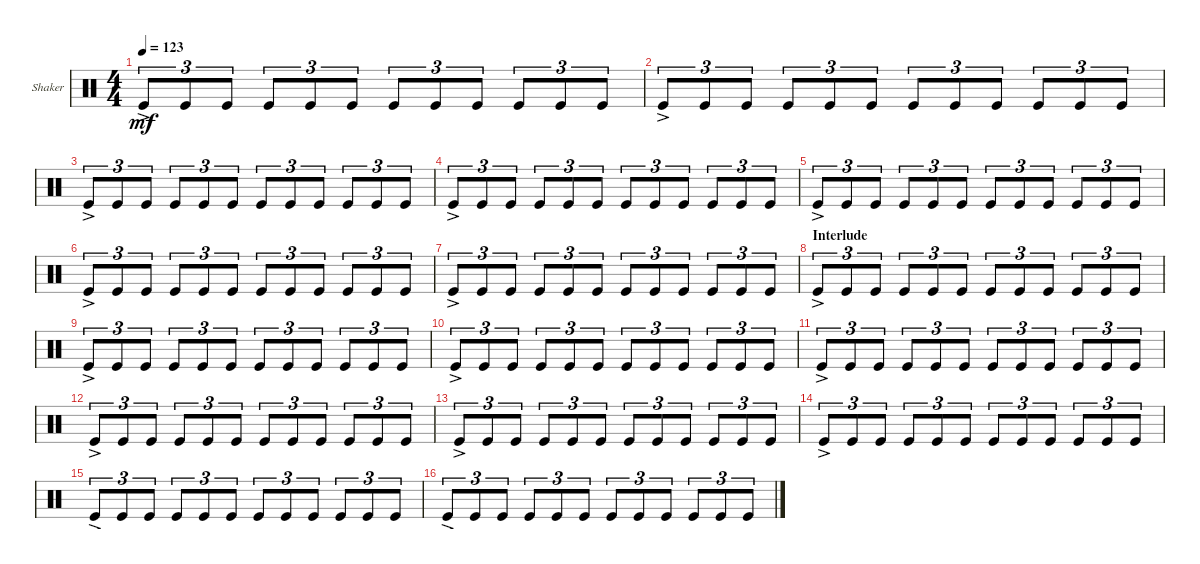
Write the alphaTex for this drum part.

\defaultSystemsLayout 4
\bracketExtendMode groupsimilarinstruments
\firstSystemTrackNameOrientation horizontal
\otherSystemsTrackNameOrientation horizontal
\track ("Shaker" "Shaker") {multiBarRest instrument percussion}
\staff {score}
\articulation defaults
\ts (4 4)
\tempo 123
\clef neutral
\ks c "Kick (hit)"{ac}.8{tu (3 2) dy mf} "Kick (hit)".8{tu (3 2)} "Kick (hit)".8{tu (3 2)} "Kick (hit)".8{tu (3 2)} "Kick (hit)".8{tu (3 2)} "Kick (hit)".8{tu (3 2)} "Kick (hit)".8{tu (3 2)} "Kick (hit)".8{tu (3 2)} "Kick (hit)".8{tu (3 2)} "Kick (hit)".8{tu (3 2)} "Kick (hit)".8{tu (3 2)} "Kick (hit)".8{tu (3 2)}
|
"Kick (hit)"{ac}.8{tu (3 2)} "Kick (hit)".8{tu (3 2)} "Kick (hit)".8{tu (3 2)} "Kick (hit)".8{tu (3 2)} "Kick (hit)".8{tu (3 2)} "Kick (hit)".8{tu (3 2)} "Kick (hit)".8{tu (3 2)} "Kick (hit)".8{tu (3 2)} "Kick (hit)".8{tu (3 2)} "Kick (hit)".8{tu (3 2)} "Kick (hit)".8{tu (3 2)} "Kick (hit)".8{tu (3 2)} |
"Kick (hit)"{ac}.8{tu (3 2)} "Kick (hit)".8{tu (3 2)} "Kick (hit)".8{tu (3 2)} "Kick (hit)".8{tu (3 2)} "Kick (hit)".8{tu (3 2)} "Kick (hit)".8{tu (3 2)} "Kick (hit)".8{tu (3 2)} "Kick (hit)".8{tu (3 2)} "Kick (hit)".8{tu (3 2)} "Kick (hit)".8{tu (3 2)} "Kick (hit)".8{tu (3 2)} "Kick (hit)".8{tu (3 2)} |
"Kick (hit)"{ac}.8{tu (3 2)} "Kick (hit)".8{tu (3 2)} "Kick (hit)".8{tu (3 2)} "Kick (hit)".8{tu (3 2)} "Kick (hit)".8{tu (3 2)} "Kick (hit)".8{tu (3 2)} "Kick (hit)".8{tu (3 2)} "Kick (hit)".8{tu (3 2)} "Kick (hit)".8{tu (3 2)} "Kick (hit)".8{tu (3 2)} "Kick (hit)".8{tu (3 2)} "Kick (hit)".8{tu (3 2)} |
"Kick (hit)"{ac}.8{tu (3 2)} "Kick (hit)".8{tu (3 2)} "Kick (hit)".8{tu (3 2)} "Kick (hit)".8{tu (3 2)} "Kick (hit)".8{tu (3 2)} "Kick (hit)".8{tu (3 2)} "Kick (hit)".8{tu (3 2)} "Kick (hit)".8{tu (3 2)} "Kick (hit)".8{tu (3 2)} "Kick (hit)".8{tu (3 2)} "Kick (hit)".8{tu (3 2)} "Kick (hit)".8{tu (3 2)} |
"Kick (hit)"{ac}.8{tu (3 2)} "Kick (hit)".8{tu (3 2)} "Kick (hit)".8{tu (3 2)} "Kick (hit)".8{tu (3 2)} "Kick (hit)".8{tu (3 2)} "Kick (hit)".8{tu (3 2)} "Kick (hit)".8{tu (3 2)} "Kick (hit)".8{tu (3 2)} "Kick (hit)".8{tu (3 2)} "Kick (hit)".8{tu (3 2)} "Kick (hit)".8{tu (3 2)} "Kick (hit)".8{tu (3 2)} |
"Kick (hit)"{ac}.8{tu (3 2)} "Kick (hit)".8{tu (3 2)} "Kick (hit)".8{tu (3 2)} "Kick (hit)".8{tu (3 2)} "Kick (hit)".8{tu (3 2)} "Kick (hit)".8{tu (3 2)} "Kick (hit)".8{tu (3 2)} "Kick (hit)".8{tu (3 2)} "Kick (hit)".8{tu (3 2)} "Kick (hit)".8{tu (3 2)} "Kick (hit)".8{tu (3 2)} "Kick (hit)".8{tu (3 2)} |
\section ("" "Interlude")
"Kick (hit)"{ac}.8{tu (3 2)} "Kick (hit)".8{tu (3 2)} "Kick (hit)".8{tu (3 2)} "Kick (hit)".8{tu (3 2)} "Kick (hit)".8{tu (3 2)} "Kick (hit)".8{tu (3 2)} "Kick (hit)".8{tu (3 2)} "Kick (hit)".8{tu (3 2)} "Kick (hit)".8{tu (3 2)} "Kick (hit)".8{tu (3 2)} "Kick (hit)".8{tu (3 2)} "Kick (hit)".8{tu (3 2)} |
"Kick (hit)"{ac}.8{tu (3 2)} "Kick (hit)".8{tu (3 2)} "Kick (hit)".8{tu (3 2)} "Kick (hit)".8{tu (3 2)} "Kick (hit)".8{tu (3 2)} "Kick (hit)".8{tu (3 2)} "Kick (hit)".8{tu (3 2)} "Kick (hit)".8{tu (3 2)} "Kick (hit)".8{tu (3 2)} "Kick (hit)".8{tu (3 2)} "Kick (hit)".8{tu (3 2)} "Kick (hit)".8{tu (3 2)} |
"Kick (hit)"{ac}.8{tu (3 2)} "Kick (hit)".8{tu (3 2)} "Kick (hit)".8{tu (3 2)} "Kick (hit)".8{tu (3 2)} "Kick (hit)".8{tu (3 2)} "Kick (hit)".8{tu (3 2)} "Kick (hit)".8{tu (3 2)} "Kick (hit)".8{tu (3 2)} "Kick (hit)".8{tu (3 2)} "Kick (hit)".8{tu (3 2)} "Kick (hit)".8{tu (3 2)} "Kick (hit)".8{tu (3 2)} |
"Kick (hit)"{ac}.8{tu (3 2)} "Kick (hit)".8{tu (3 2)} "Kick (hit)".8{tu (3 2)} "Kick (hit)".8{tu (3 2)} "Kick (hit)".8{tu (3 2)} "Kick (hit)".8{tu (3 2)} "Kick (hit)".8{tu (3 2)} "Kick (hit)".8{tu (3 2)} "Kick (hit)".8{tu (3 2)} "Kick (hit)".8{tu (3 2)} "Kick (hit)".8{tu (3 2)} "Kick (hit)".8{tu (3 2)} |
"Kick (hit)"{ac}.8{tu (3 2)} "Kick (hit)".8{tu (3 2)} "Kick (hit)".8{tu (3 2)} "Kick (hit)".8{tu (3 2)} "Kick (hit)".8{tu (3 2)} "Kick (hit)".8{tu (3 2)} "Kick (hit)".8{tu (3 2)} "Kick (hit)".8{tu (3 2)} "Kick (hit)".8{tu (3 2)} "Kick (hit)".8{tu (3 2)} "Kick (hit)".8{tu (3 2)} "Kick (hit)".8{tu (3 2)} |
"Kick (hit)"{ac}.8{tu (3 2)} "Kick (hit)".8{tu (3 2)} "Kick (hit)".8{tu (3 2)} "Kick (hit)".8{tu (3 2)} "Kick (hit)".8{tu (3 2)} "Kick (hit)".8{tu (3 2)} "Kick (hit)".8{tu (3 2)} "Kick (hit)".8{tu (3 2)} "Kick (hit)".8{tu (3 2)} "Kick (hit)".8{tu (3 2)} "Kick (hit)".8{tu (3 2)} "Kick (hit)".8{tu (3 2)} |
"Kick (hit)"{ac}.8{tu (3 2)} "Kick (hit)".8{tu (3 2)} "Kick (hit)".8{tu (3 2)} "Kick (hit)".8{tu (3 2)} "Kick (hit)".8{tu (3 2)} "Kick (hit)".8{tu (3 2)} "Kick (hit)".8{tu (3 2)} "Kick (hit)".8{tu (3 2)} "Kick (hit)".8{tu (3 2)} "Kick (hit)".8{tu (3 2)} "Kick (hit)".8{tu (3 2)} "Kick (hit)".8{tu (3 2)} |
"Kick (hit)"{ac}.8{tu (3 2)} "Kick (hit)".8{tu (3 2)} "Kick (hit)".8{tu (3 2)} "Kick (hit)".8{tu (3 2)} "Kick (hit)".8{tu (3 2)} "Kick (hit)".8{tu (3 2)} "Kick (hit)".8{tu (3 2)} "Kick (hit)".8{tu (3 2)} "Kick (hit)".8{tu (3 2)} "Kick (hit)".8{tu (3 2)} "Kick (hit)".8{tu (3 2)} "Kick (hit)".8{tu (3 2)} |
"Kick (hit)"{ac}.8{tu (3 2)} "Kick (hit)".8{tu (3 2)} "Kick (hit)".8{tu (3 2)} "Kick (hit)".8{tu (3 2)} "Kick (hit)".8{tu (3 2)} "Kick (hit)".8{tu (3 2)} "Kick (hit)".8{tu (3 2)} "Kick (hit)".8{tu (3 2)} "Kick (hit)".8{tu (3 2)} "Kick (hit)".8{tu (3 2)} "Kick (hit)".8{tu (3 2)} "Kick (hit)".8{tu (3 2)}
